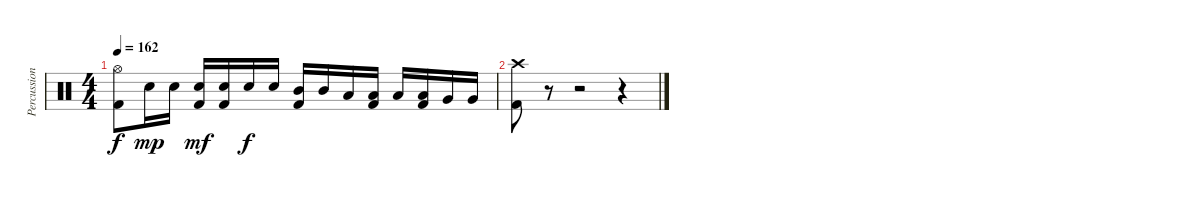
\track ("Percussion" "Percussion") {instrument percussion}
\staff {score}
\articulation defaults
\ts (4 4)
\tempo 162
\clef neutral
\ks c
("Hi-Hat (open)" "Kick (hit) 2").8{dy f} "Electric Snare (hit)".16{dy mp} "Electric Snare (hit)".16 ("Electric Snare (hit)" "Kick (hit) 2").16{dy mf} ("Electric Snare (hit)" "Kick (hit) 2").16 "Electric Snare (hit)".16{dy f} "Electric Snare (hit)".16 ("Mid Tom (hit)" "Kick (hit) 2").16 "Mid Tom (hit)".16 "Low Tom (hit)".16 ("Low Tom (hit)" "Kick (hit) 2").16 "Low Tom (hit)".16 ("Low Tom (hit)" "Kick (hit) 2").16 "Very Low Tom (hit)".16 "Very Low Tom (hit)".16 |
("Crash high (hit)" "Kick (hit) 2").8 r.8 r.2 r.4
